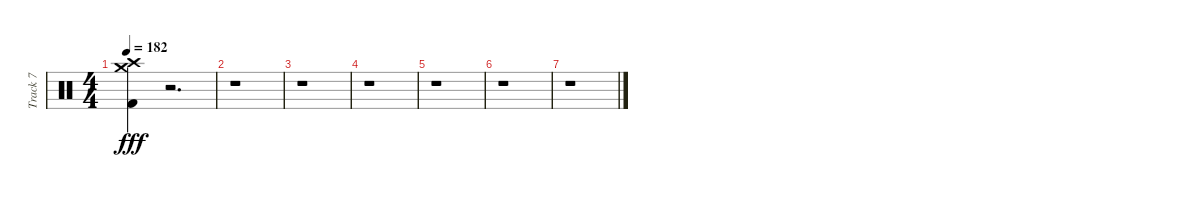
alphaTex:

\track ("Track 7" "Track 7") {instrument percussion}
\staff {score}
\articulation defaults
\ts (4 4)
\tempo 182
\clef neutral
\ks c
("Kick (hit) 2" "Crash medium (hit)" "Crash high (hit)").4{dy fff} r.2{d} |
r.1 |
r.1 |
r.1 |
r.1 |
r.1 |
r.1
